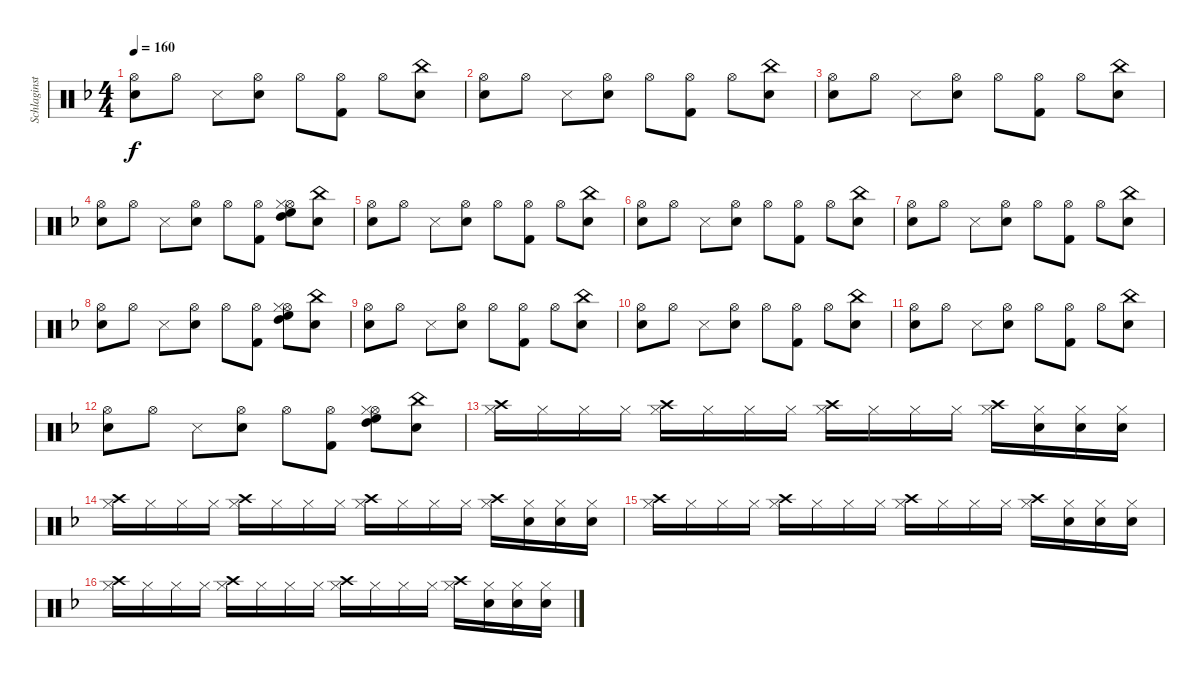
\track ("Schlaginstrumente - Auswahl" "Schlaginst") {instrument percussion}
\staff {score}
\articulation defaults
\ts (4 4)
\tempo 160
\clef neutral
\ks dminor
("Snare (hit) 2" "Hi-Hat (open)").8{dy f} "Hi-Hat (open)".8 "Snare (side stick) 3".8 ("Hi-Hat (open)" "Snare (hit) 2").8 "Hi-Hat (open)".8 ("Hi-Hat (open)" "Kick (hit) 2").8 "Hi-Hat (open)".8 ("China (hit)" "Electric Snare (hit)").8 |
("Snare (hit) 2" "Hi-Hat (open)").8 "Hi-Hat (open)".8 "Snare (side stick) 3".8 ("Hi-Hat (open)" "Snare (hit) 2").8 "Hi-Hat (open)".8 ("Hi-Hat (open)" "Kick (hit) 2").8 "Hi-Hat (open)".8 ("China (hit)" "Electric Snare (hit)").8 |
("Snare (hit) 2" "Hi-Hat (open)").8 "Hi-Hat (open)".8 "Snare (side stick) 3".8 ("Hi-Hat (open)" "Snare (hit) 2").8 "Hi-Hat (open)".8 ("Hi-Hat (open)" "Kick (hit) 2").8 "Hi-Hat (open)".8 ("China (hit)" "Electric Snare (hit)").8 |
("Snare (hit) 2" "Hi-Hat (open)").8 "Hi-Hat (open)".8 "Snare (side stick) 3".8 ("Hi-Hat (open)" "Snare (hit) 2").8 "Hi-Hat (open)".8 ("Hi-Hat (open)" "Kick (hit) 2").8 ("Hi-Hat (open)" "High Tom (hit)" "Hi-Hat (closed)" "High Floor Tom (hit)").8 ("China (hit)" "Electric Snare (hit)").8 |
("Snare (hit) 2" "Hi-Hat (open)").8 "Hi-Hat (open)".8 "Snare (side stick) 3".8 ("Hi-Hat (open)" "Snare (hit) 2").8 "Hi-Hat (open)".8 ("Hi-Hat (open)" "Kick (hit) 2").8 "Hi-Hat (open)".8 ("China (hit)" "Electric Snare (hit)").8 |
("Snare (hit) 2" "Hi-Hat (open)").8 "Hi-Hat (open)".8 "Snare (side stick) 3".8 ("Hi-Hat (open)" "Snare (hit) 2").8 "Hi-Hat (open)".8 ("Hi-Hat (open)" "Kick (hit) 2").8 "Hi-Hat (open)".8 ("China (hit)" "Electric Snare (hit)").8 |
("Snare (hit) 2" "Hi-Hat (open)").8 "Hi-Hat (open)".8 "Snare (side stick) 3".8 ("Hi-Hat (open)" "Snare (hit) 2").8 "Hi-Hat (open)".8 ("Hi-Hat (open)" "Kick (hit) 2").8 "Hi-Hat (open)".8 ("China (hit)" "Electric Snare (hit)").8 |
("Snare (hit) 2" "Hi-Hat (open)").8 "Hi-Hat (open)".8 "Snare (side stick) 3".8 ("Hi-Hat (open)" "Snare (hit) 2").8 "Hi-Hat (open)".8 ("Hi-Hat (open)" "Kick (hit) 2").8 ("Hi-Hat (open)" "High Tom (hit)" "Hi-Hat (closed)" "High Floor Tom (hit)").8 ("China (hit)" "Electric Snare (hit)").8 |
("Snare (hit) 2" "Hi-Hat (open)").8 "Hi-Hat (open)".8 "Snare (side stick) 3".8 ("Hi-Hat (open)" "Snare (hit) 2").8 "Hi-Hat (open)".8 ("Hi-Hat (open)" "Kick (hit) 2").8 "Hi-Hat (open)".8 ("China (hit)" "Electric Snare (hit)").8 |
("Snare (hit) 2" "Hi-Hat (open)").8 "Hi-Hat (open)".8 "Snare (side stick) 3".8 ("Hi-Hat (open)" "Snare (hit) 2").8 "Hi-Hat (open)".8 ("Hi-Hat (open)" "Kick (hit) 2").8 "Hi-Hat (open)".8 ("China (hit)" "Electric Snare (hit)").8 |
("Snare (hit) 2" "Hi-Hat (open)").8 "Hi-Hat (open)".8 "Snare (side stick) 3".8 ("Hi-Hat (open)" "Snare (hit) 2").8 "Hi-Hat (open)".8 ("Hi-Hat (open)" "Kick (hit) 2").8 "Hi-Hat (open)".8 ("China (hit)" "Electric Snare (hit)").8 |
("Snare (hit) 2" "Hi-Hat (open)").8 "Hi-Hat (open)".8 "Snare (side stick) 3".8 ("Hi-Hat (open)" "Snare (hit) 2").8 "Hi-Hat (open)".8 ("Hi-Hat (open)" "Kick (hit) 2").8 ("Hi-Hat (open)" "High Tom (hit)" "Hi-Hat (closed)" "High Floor Tom (hit)").8 ("China (hit)" "Electric Snare (hit)").8 |
("Hi-Hat (closed)" "Crash high (hit)").16 "Hi-Hat (closed)".16 "Hi-Hat (closed)".16 "Hi-Hat (closed)".16 ("Hi-Hat (closed)" "Crash high (hit)").16 "Hi-Hat (closed)".16 "Hi-Hat (closed)".16 "Hi-Hat (closed)".16 ("Hi-Hat (closed)" "Crash high (hit)").16 "Hi-Hat (closed)".16 "Hi-Hat (closed)".16 "Hi-Hat (closed)".16 ("Hi-Hat (closed)" "Crash high (hit)").16 ("Hi-Hat (closed)" "Electric Snare (hit)").16 ("Hi-Hat (closed)" "Electric Snare (hit)").16 ("Hi-Hat (closed)" "Electric Snare (hit)").16 |
("Hi-Hat (closed)" "Crash high (hit)").16 "Hi-Hat (closed)".16 "Hi-Hat (closed)".16 "Hi-Hat (closed)".16 ("Hi-Hat (closed)" "Crash high (hit)").16 "Hi-Hat (closed)".16 "Hi-Hat (closed)".16 "Hi-Hat (closed)".16 ("Hi-Hat (closed)" "Crash high (hit)").16 "Hi-Hat (closed)".16 "Hi-Hat (closed)".16 "Hi-Hat (closed)".16 ("Hi-Hat (closed)" "Crash high (hit)").16 ("Hi-Hat (closed)" "Electric Snare (hit)").16 ("Hi-Hat (closed)" "Electric Snare (hit)").16 ("Hi-Hat (closed)" "Electric Snare (hit)").16 |
("Hi-Hat (closed)" "Crash high (hit)").16 "Hi-Hat (closed)".16 "Hi-Hat (closed)".16 "Hi-Hat (closed)".16 ("Hi-Hat (closed)" "Crash high (hit)").16 "Hi-Hat (closed)".16 "Hi-Hat (closed)".16 "Hi-Hat (closed)".16 ("Hi-Hat (closed)" "Crash high (hit)").16 "Hi-Hat (closed)".16 "Hi-Hat (closed)".16 "Hi-Hat (closed)".16 ("Hi-Hat (closed)" "Crash high (hit)").16 ("Hi-Hat (closed)" "Electric Snare (hit)").16 ("Hi-Hat (closed)" "Electric Snare (hit)").16 ("Hi-Hat (closed)" "Electric Snare (hit)").16 |
("Hi-Hat (closed)" "Crash high (hit)").16 "Hi-Hat (closed)".16 "Hi-Hat (closed)".16 "Hi-Hat (closed)".16 ("Hi-Hat (closed)" "Crash high (hit)").16 "Hi-Hat (closed)".16 "Hi-Hat (closed)".16 "Hi-Hat (closed)".16 ("Hi-Hat (closed)" "Crash high (hit)").16 "Hi-Hat (closed)".16 "Hi-Hat (closed)".16 "Hi-Hat (closed)".16 ("Hi-Hat (closed)" "Crash high (hit)").16 ("Hi-Hat (closed)" "Electric Snare (hit)").16 ("Hi-Hat (closed)" "Electric Snare (hit)").16 ("Hi-Hat (closed)" "Electric Snare (hit)").16
